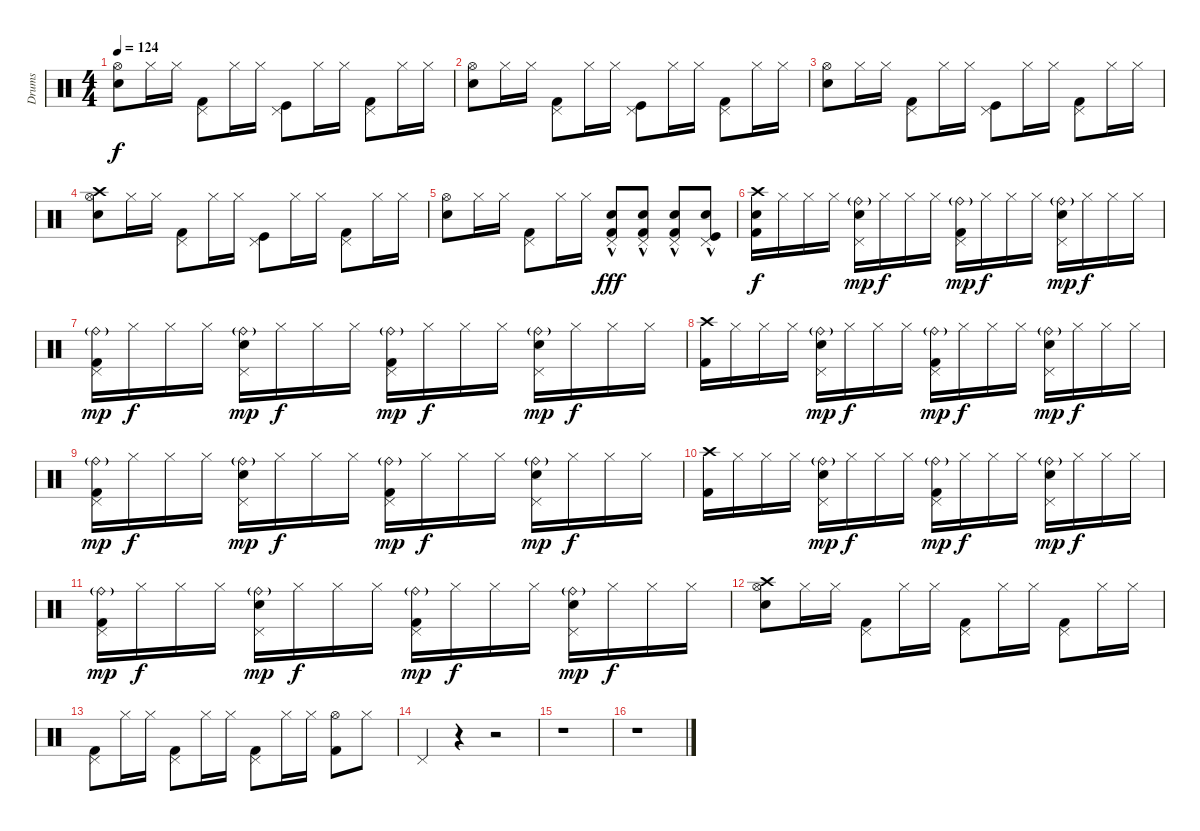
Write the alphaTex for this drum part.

\track ("Drums" "Drums") {instrument percussion}
\staff {score}
\articulation defaults
\ts (4 4)
\tempo 124
\clef neutral
\ks c
("Hi-Hat (open)" "Snare (hit) 2").8{dy f} "Hi-Hat (closed)".16 "Hi-Hat (closed)".16 ("Pedal Hi-Hat (hit)" "Kick (hit) 2").8 "Hi-Hat (closed)".16 "Hi-Hat (closed)".16 ("Pedal Hi-Hat (hit)" "Kick (hit)").8 "Hi-Hat (closed)".16 "Hi-Hat (closed)".16 ("Pedal Hi-Hat (hit)" "Kick (hit) 2").8 "Hi-Hat (closed)".16 "Hi-Hat (closed)".16 |
("Hi-Hat (open)" "Snare (hit) 2").8 "Hi-Hat (closed)".16 "Hi-Hat (closed)".16 ("Pedal Hi-Hat (hit)" "Kick (hit) 2").8 "Hi-Hat (closed)".16 "Hi-Hat (closed)".16 ("Pedal Hi-Hat (hit)" "Kick (hit)").8 "Hi-Hat (closed)".16 "Hi-Hat (closed)".16 ("Pedal Hi-Hat (hit)" "Kick (hit) 2").8 "Hi-Hat (closed)".16 "Hi-Hat (closed)".16 |
("Hi-Hat (open)" "Snare (hit) 2").8 "Hi-Hat (closed)".16 "Hi-Hat (closed)".16 ("Pedal Hi-Hat (hit)" "Kick (hit) 2").8 "Hi-Hat (closed)".16 "Hi-Hat (closed)".16 ("Pedal Hi-Hat (hit)" "Kick (hit)").8 "Hi-Hat (closed)".16 "Hi-Hat (closed)".16 ("Pedal Hi-Hat (hit)" "Kick (hit) 2").8 "Hi-Hat (closed)".16 "Hi-Hat (closed)".16 |
("Crash high (hit)" "Hi-Hat (open)" "Snare (hit) 2").8 "Hi-Hat (closed)".16 "Hi-Hat (closed)".16 ("Pedal Hi-Hat (hit)" "Kick (hit) 2").8 "Hi-Hat (closed)".16 "Hi-Hat (closed)".16 ("Pedal Hi-Hat (hit)" "Kick (hit)").8 "Hi-Hat (closed)".16 "Hi-Hat (closed)".16 ("Pedal Hi-Hat (hit)" "Kick (hit) 2").8 "Hi-Hat (closed)".16 "Hi-Hat (closed)".16 |
("Hi-Hat (open)" "Snare (hit) 2").8 "Hi-Hat (closed)".16 "Hi-Hat (closed)".16 ("Pedal Hi-Hat (hit)" "Kick (hit) 2").8 "Hi-Hat (closed)".16 "Hi-Hat (closed)".16 ("Snare (hit) 2"{hac} "Pedal Hi-Hat (hit)" "Kick (hit) 2"{hac}).8{dy fff} ("Snare (hit) 2"{hac} "Pedal Hi-Hat (hit)" "Kick (hit) 2"{hac}).8 ("Snare (hit) 2"{hac} "Pedal Hi-Hat (hit)" "Kick (hit) 2"{hac}).8 ("Snare (hit) 2"{hac} "Pedal Hi-Hat (hit)" "Kick (hit)"{hac}).8 |
("Electric Snare (hit)" "Crash high (hit)" "Kick (hit) 2").16{dy f} "Hi-Hat (closed)".16 "Hi-Hat (closed)".16 "Hi-Hat (closed)".16 ("Ride (bell)"{g} "Pedal Hi-Hat (hit)" "Snare (hit) 2").16{dy mp} "Hi-Hat (closed)".16{dy f} "Hi-Hat (closed)".16 "Hi-Hat (closed)".16 ("Ride (bell)"{g} "Pedal Hi-Hat (hit)" "Kick (hit) 2").16{dy mp} "Hi-Hat (closed)".16{dy f} "Hi-Hat (closed)".16 "Hi-Hat (closed)".16 ("Ride (bell)"{g} "Pedal Hi-Hat (hit)" "Snare (hit) 2").16{dy mp} "Hi-Hat (closed)".16{dy f} "Hi-Hat (closed)".16 "Hi-Hat (closed)".16 |
("Ride (bell)"{g} "Pedal Hi-Hat (hit)" "Kick (hit) 2").16{dy mp} "Hi-Hat (closed)".16{dy f} "Hi-Hat (closed)".16 "Hi-Hat (closed)".16 ("Ride (bell)"{g} "Pedal Hi-Hat (hit)" "Snare (hit) 2").16{dy mp} "Hi-Hat (closed)".16{dy f} "Hi-Hat (closed)".16 "Hi-Hat (closed)".16 ("Ride (bell)"{g} "Pedal Hi-Hat (hit)" "Kick (hit) 2").16{dy mp} "Hi-Hat (closed)".16{dy f} "Hi-Hat (closed)".16 "Hi-Hat (closed)".16 ("Ride (bell)"{g} "Pedal Hi-Hat (hit)" "Snare (hit) 2").16{dy mp} "Hi-Hat (closed)".16{dy f} "Hi-Hat (closed)".16 "Hi-Hat (closed)".16 |
("Crash high (hit)" "Kick (hit) 2").16 "Hi-Hat (closed)".16 "Hi-Hat (closed)".16 "Hi-Hat (closed)".16 ("Ride (bell)"{g} "Pedal Hi-Hat (hit)" "Snare (hit) 2").16{dy mp} "Hi-Hat (closed)".16{dy f} "Hi-Hat (closed)".16 "Hi-Hat (closed)".16 ("Ride (bell)"{g} "Pedal Hi-Hat (hit)" "Kick (hit) 2").16{dy mp} "Hi-Hat (closed)".16{dy f} "Hi-Hat (closed)".16 "Hi-Hat (closed)".16 ("Ride (bell)"{g} "Pedal Hi-Hat (hit)" "Snare (hit) 2").16{dy mp} "Hi-Hat (closed)".16{dy f} "Hi-Hat (closed)".16 "Hi-Hat (closed)".16 |
("Ride (bell)"{g} "Pedal Hi-Hat (hit)" "Kick (hit) 2").16{dy mp} "Hi-Hat (closed)".16{dy f} "Hi-Hat (closed)".16 "Hi-Hat (closed)".16 ("Ride (bell)"{g} "Pedal Hi-Hat (hit)" "Snare (hit) 2").16{dy mp} "Hi-Hat (closed)".16{dy f} "Hi-Hat (closed)".16 "Hi-Hat (closed)".16 ("Ride (bell)"{g} "Pedal Hi-Hat (hit)" "Kick (hit) 2").16{dy mp} "Hi-Hat (closed)".16{dy f} "Hi-Hat (closed)".16 "Hi-Hat (closed)".16 ("Ride (bell)"{g} "Pedal Hi-Hat (hit)" "Snare (hit) 2").16{dy mp} "Hi-Hat (closed)".16{dy f} "Hi-Hat (closed)".16 "Hi-Hat (closed)".16 |
("Crash high (hit)" "Kick (hit) 2").16 "Hi-Hat (closed)".16 "Hi-Hat (closed)".16 "Hi-Hat (closed)".16 ("Ride (bell)"{g} "Pedal Hi-Hat (hit)" "Snare (hit) 2").16{dy mp} "Hi-Hat (closed)".16{dy f} "Hi-Hat (closed)".16 "Hi-Hat (closed)".16 ("Ride (bell)"{g} "Pedal Hi-Hat (hit)" "Kick (hit) 2").16{dy mp} "Hi-Hat (closed)".16{dy f} "Hi-Hat (closed)".16 "Hi-Hat (closed)".16 ("Ride (bell)"{g} "Pedal Hi-Hat (hit)" "Snare (hit) 2").16{dy mp} "Hi-Hat (closed)".16{dy f} "Hi-Hat (closed)".16 "Hi-Hat (closed)".16 |
("Ride (bell)"{g} "Pedal Hi-Hat (hit)" "Kick (hit) 2").16{dy mp} "Hi-Hat (closed)".16{dy f} "Hi-Hat (closed)".16 "Hi-Hat (closed)".16 ("Ride (bell)"{g} "Pedal Hi-Hat (hit)" "Snare (hit) 2").16{dy mp} "Hi-Hat (closed)".16{dy f} "Hi-Hat (closed)".16 "Hi-Hat (closed)".16 ("Ride (bell)"{g} "Pedal Hi-Hat (hit)" "Kick (hit) 2").16{dy mp} "Hi-Hat (closed)".16{dy f} "Hi-Hat (closed)".16 "Hi-Hat (closed)".16 ("Ride (bell)"{g} "Pedal Hi-Hat (hit)" "Snare (hit) 2").16{dy mp} "Hi-Hat (closed)".16{dy f} "Hi-Hat (closed)".16 "Hi-Hat (closed)".16 |
("Crash high (hit)" "Hi-Hat (open)" "Snare (hit) 2").8 "Hi-Hat (closed)".16 "Hi-Hat (closed)".16 ("Pedal Hi-Hat (hit)" "Kick (hit) 2").8 "Hi-Hat (closed)".16 "Hi-Hat (closed)".16 ("Pedal Hi-Hat (hit)" "Kick (hit) 2").8 "Hi-Hat (closed)".16 "Hi-Hat (closed)".16 ("Pedal Hi-Hat (hit)" "Kick (hit) 2").8 "Hi-Hat (closed)".16 "Hi-Hat (closed)".16 |
("Pedal Hi-Hat (hit)" "Kick (hit) 2").8 "Hi-Hat (closed)".16 "Hi-Hat (closed)".16 ("Pedal Hi-Hat (hit)" "Kick (hit) 2").8 "Hi-Hat (closed)".16 "Hi-Hat (closed)".16 ("Pedal Hi-Hat (hit)" "Kick (hit) 2").8 "Hi-Hat (closed)".16 "Hi-Hat (closed)".16 ("Hi-Hat (open)" "Kick (hit) 2").8 "Hi-Hat (closed)".8 |
"Pedal Hi-Hat (hit)".4 r.4 r.2 |
r.1 |
r.1
